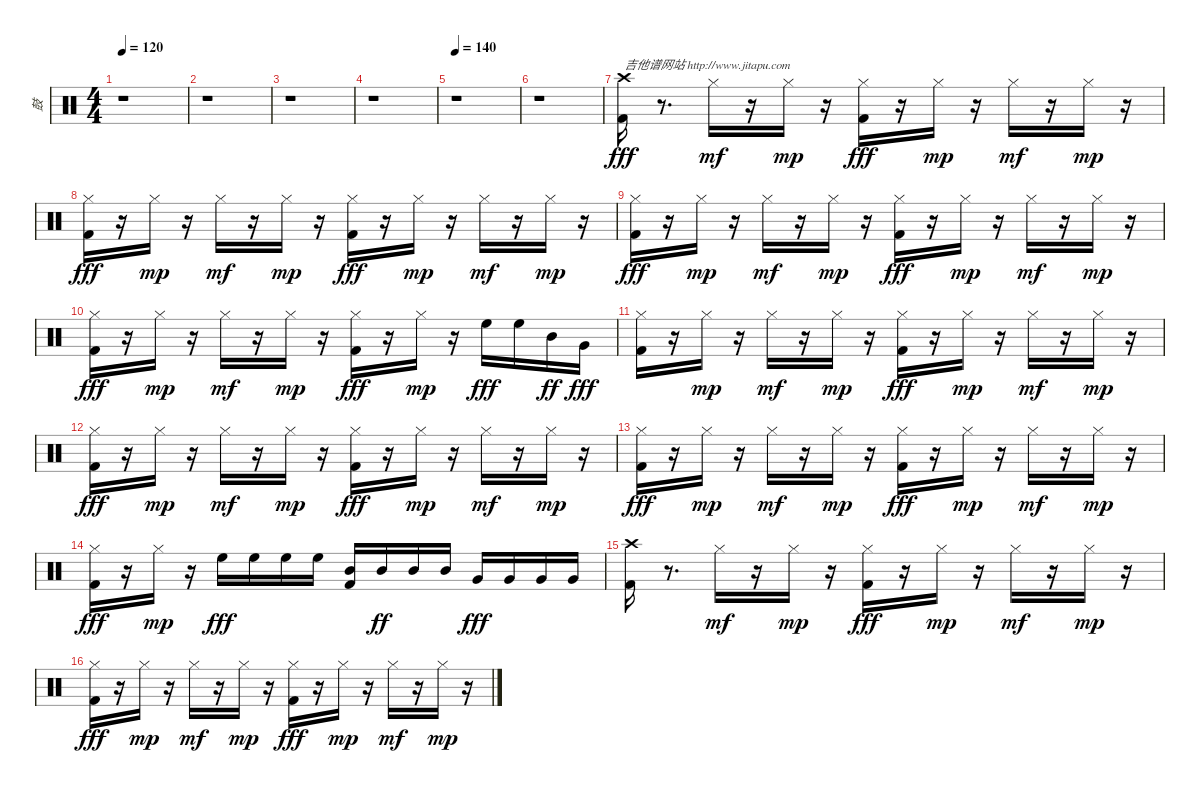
\track ("鼓" "鼓") {instrument percussion}
\staff {score}
\articulation defaults
\ts (4 4)
\tempo 120
\clef neutral
\ks c
r.1{dy fff} |
r.1 |
r.1 |
r.1 |
\tempo 140
r.1 |
r.1 |
("Crash high (hit)" "Kick (hit) 2").16{txt "吉他谱网站 http://www.jitapu.com"} r.8{d} "Hi-Hat (closed)".16{dy mf} r.16 "Hi-Hat (closed)".16{dy mp} r.16 ("Hi-Hat (closed)" "Kick (hit) 2").16{dy fff} r.16 "Hi-Hat (closed)".16{dy mp} r.16 "Hi-Hat (closed)".16{dy mf} r.16 "Hi-Hat (closed)".16{dy mp} r.16 |
("Hi-Hat (closed)" "Kick (hit) 2").16{dy fff} r.16 "Hi-Hat (closed)".16{dy mp} r.16 "Hi-Hat (closed)".16{dy mf} r.16 "Hi-Hat (closed)".16{dy mp} r.16 ("Hi-Hat (closed)" "Kick (hit) 2").16{dy fff} r.16 "Hi-Hat (closed)".16{dy mp} r.16 "Hi-Hat (closed)".16{dy mf} r.16 "Hi-Hat (closed)".16{dy mp} r.16 |
("Hi-Hat (closed)" "Kick (hit) 2").16{dy fff} r.16 "Hi-Hat (closed)".16{dy mp} r.16 "Hi-Hat (closed)".16{dy mf} r.16 "Hi-Hat (closed)".16{dy mp} r.16 ("Hi-Hat (closed)" "Kick (hit) 2").16{dy fff} r.16 "Hi-Hat (closed)".16{dy mp} r.16 "Hi-Hat (closed)".16{dy mf} r.16 "Hi-Hat (closed)".16{dy mp} r.16 |
("Hi-Hat (closed)" "Kick (hit) 2").16{dy fff} r.16 "Hi-Hat (closed)".16{dy mp} r.16 "Hi-Hat (closed)".16{dy mf} r.16 "Hi-Hat (closed)".16{dy mp} r.16 ("Hi-Hat (closed)" "Kick (hit) 2").16{dy fff} r.16 "Hi-Hat (closed)".16{dy mp} r.16 "High Floor Tom (hit)".16{dy fff} "High Floor Tom (hit)".16 "Mid Tom (hit)".16{dy ff} "Very Low Tom (hit)".16{dy fff} |
("Hi-Hat (closed)" "Kick (hit) 2").16 r.16 "Hi-Hat (closed)".16{dy mp} r.16 "Hi-Hat (closed)".16{dy mf} r.16 "Hi-Hat (closed)".16{dy mp} r.16 ("Hi-Hat (closed)" "Kick (hit) 2").16{dy fff} r.16 "Hi-Hat (closed)".16{dy mp} r.16 "Hi-Hat (closed)".16{dy mf} r.16 "Hi-Hat (closed)".16{dy mp} r.16 |
("Hi-Hat (closed)" "Kick (hit) 2").16{dy fff} r.16 "Hi-Hat (closed)".16{dy mp} r.16 "Hi-Hat (closed)".16{dy mf} r.16 "Hi-Hat (closed)".16{dy mp} r.16 ("Hi-Hat (closed)" "Kick (hit) 2").16{dy fff} r.16 "Hi-Hat (closed)".16{dy mp} r.16 "Hi-Hat (closed)".16{dy mf} r.16 "Hi-Hat (closed)".16{dy mp} r.16 |
("Hi-Hat (closed)" "Kick (hit) 2").16{dy fff} r.16 "Hi-Hat (closed)".16{dy mp} r.16 "Hi-Hat (closed)".16{dy mf} r.16 "Hi-Hat (closed)".16{dy mp} r.16 ("Hi-Hat (closed)" "Kick (hit) 2").16{dy fff} r.16 "Hi-Hat (closed)".16{dy mp} r.16 "Hi-Hat (closed)".16{dy mf} r.16 "Hi-Hat (closed)".16{dy mp} r.16 |
("Hi-Hat (closed)" "Kick (hit) 2").16{dy fff} r.16 "Hi-Hat (closed)".16{dy mp} r.16 "High Floor Tom (hit)".16{dy fff} "High Floor Tom (hit)".16 "High Floor Tom (hit)".16 "High Floor Tom (hit)".16 ("Mid Tom (hit)" "Kick (hit) 2").16 "Mid Tom (hit)".16{dy ff} "Mid Tom (hit)".16 "Mid Tom (hit)".16 "Very Low Tom (hit)".16{dy fff} "Very Low Tom (hit)".16 "Very Low Tom (hit)".16 "Very Low Tom (hit)".16 |
("Crash high (hit)" "Kick (hit) 2").16 r.8{d} "Hi-Hat (closed)".16{dy mf} r.16 "Hi-Hat (closed)".16{dy mp} r.16 ("Hi-Hat (closed)" "Kick (hit) 2").16{dy fff} r.16 "Hi-Hat (closed)".16{dy mp} r.16 "Hi-Hat (closed)".16{dy mf} r.16 "Hi-Hat (closed)".16{dy mp} r.16 |
("Hi-Hat (closed)" "Kick (hit) 2").16{dy fff} r.16 "Hi-Hat (closed)".16{dy mp} r.16 "Hi-Hat (closed)".16{dy mf} r.16 "Hi-Hat (closed)".16{dy mp} r.16 ("Hi-Hat (closed)" "Kick (hit) 2").16{dy fff} r.16 "Hi-Hat (closed)".16{dy mp} r.16 "Hi-Hat (closed)".16{dy mf} r.16 "Hi-Hat (closed)".16{dy mp} r.16
